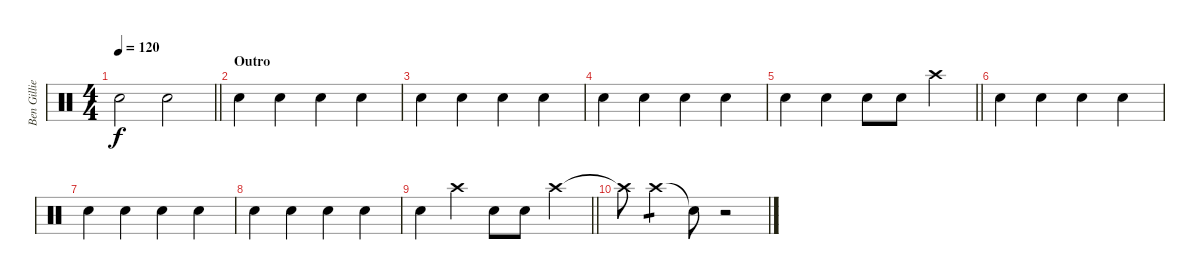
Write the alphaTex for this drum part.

\track ("Ben Gillies(drums)" "Ben Gillie") {instrument percussion}
\staff {score}
\articulation defaults
\ts (4 4)
\tempo 120
\clef neutral
\barLineRight lightlight
\ks c "Electric Snare (hit)".2{dy f} "Electric Snare (hit)".2
|
\section ("" "Outro")
"Electric Snare (hit)".4 "Electric Snare (hit)".4 "Electric Snare (hit)".4 "Electric Snare (hit)".4 |
"Electric Snare (hit)".4 "Electric Snare (hit)".4 "Electric Snare (hit)".4 "Electric Snare (hit)".4 |
"Electric Snare (hit)".4 "Electric Snare (hit)".4 "Electric Snare (hit)".4 "Electric Snare (hit)".4 |
\barLineRight lightlight "Electric Snare (hit)".4 "Electric Snare (hit)".4 "Electric Snare (hit)".8 "Electric Snare (hit)".8 "Crash high (hit)".4
|
\section ("" "")
"Electric Snare (hit)".4 "Electric Snare (hit)".4 "Electric Snare (hit)".4 "Electric Snare (hit)".4 |
"Electric Snare (hit)".4 "Electric Snare (hit)".4 "Electric Snare (hit)".4 "Electric Snare (hit)".4 |
"Electric Snare (hit)".4 "Electric Snare (hit)".4 "Electric Snare (hit)".4 "Electric Snare (hit)".4 |
\barLineRight lightlight "Electric Snare (hit)".4 "Crash high (hit)".4 "Electric Snare (hit)".8 "Electric Snare (hit)".8 "Crash high (hit)".4
|
\section ("" "")
"Crash high (hit)"{t}.8 "Crash high (hit)".4{tp 1} "Snare (hit)"{t}.8 r.2
